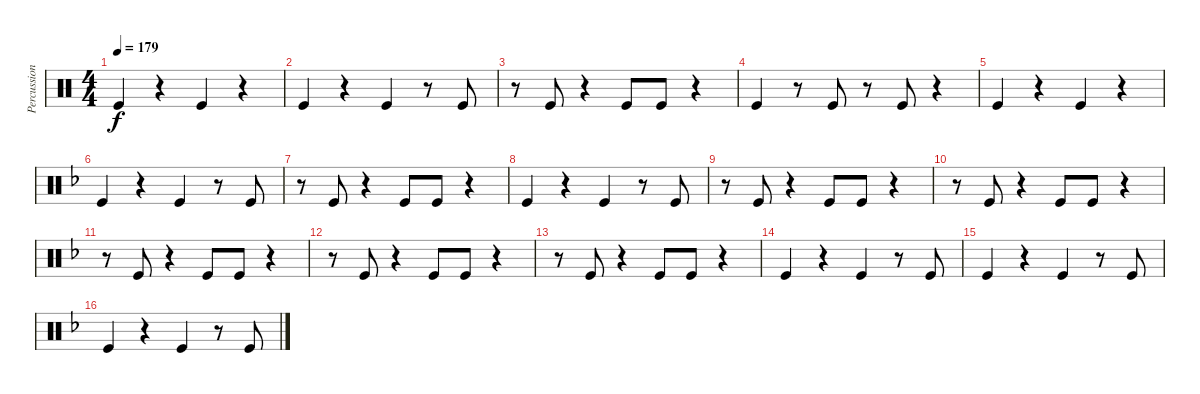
\track ("Percussion 02" "Percussion") {instrument percussion}
\staff {score}
\articulation defaults
\ts (4 4)
\tempo 179
\clef neutral
\ks aminor "Kick (hit)".4{dy f}
r.4 "Kick (hit)".4 r.4 |
"Kick (hit)".4 r.4 "Kick (hit)".4 r.8 "Kick (hit)".8 |
r.8 "Kick (hit)".8 r.4 "Kick (hit)".8 "Kick (hit)".8 r.4 |
"Kick (hit)".4 r.8 "Kick (hit)".8 r.8 "Kick (hit)".8 r.4 |
"Kick (hit)".4 r.4 "Kick (hit)".4 r.4 |
\ks dminor "Kick (hit)".4
r.4 "Kick (hit)".4 r.8 "Kick (hit)".8 |
r.8 "Kick (hit)".8 r.4 "Kick (hit)".8 "Kick (hit)".8 r.4 |
"Kick (hit)".4 r.4 "Kick (hit)".4 r.8 "Kick (hit)".8 |
r.8 "Kick (hit)".8 r.4 "Kick (hit)".8 "Kick (hit)".8 r.4 |
r.8 "Kick (hit)".8 r.4 "Kick (hit)".8 "Kick (hit)".8 r.4 |
r.8 "Kick (hit)".8 r.4 "Kick (hit)".8 "Kick (hit)".8 r.4 |
r.8 "Kick (hit)".8 r.4 "Kick (hit)".8 "Kick (hit)".8 r.4 |
r.8 "Kick (hit)".8 r.4 "Kick (hit)".8 "Kick (hit)".8 r.4 |
"Kick (hit)".4 r.4 "Kick (hit)".4 r.8 "Kick (hit)".8 |
"Kick (hit)".4 r.4 "Kick (hit)".4 r.8 "Kick (hit)".8 |
"Kick (hit)".4 r.4 "Kick (hit)".4 r.8 "Kick (hit)".8
